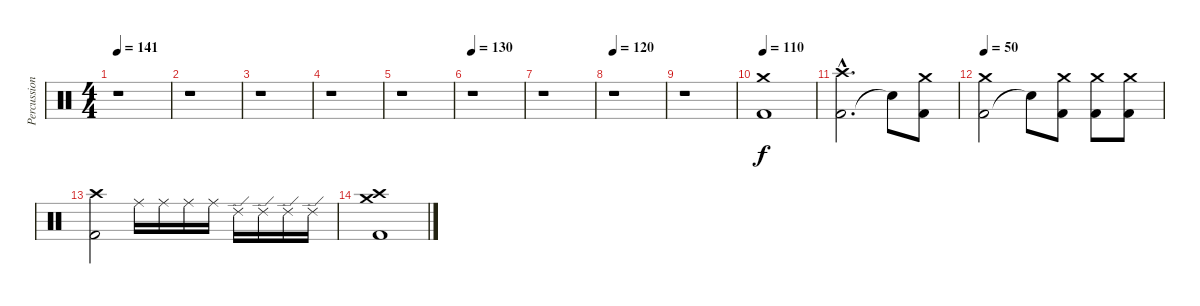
\track ("Percussion" "Percussion") {instrument percussion}
\staff {score}
\articulation defaults
\ts (4 4)
\tempo 141
\clef neutral
\ks c
r.1{dy f} |
r.1 |
r.1 |
r.1 |
r.1 |
\tempo 130
r.1 |
r.1 |
\tempo 120
r.1 |
r.1 |
\tempo 110
("Kick (hit) 2" "Crash medium (hit)").1 |
("Kick (hit) 2"{hac} "Crash high (hit)"{hac}).2{d} "Snare (hit)"{t}.8 ("Kick (hit) 2" "Crash medium (hit)").8 |
\tempo 50
("Kick (hit) 2" "Crash medium (hit)").2 "Snare (hit)"{t}.8 ("Kick (hit) 2" "Crash medium (hit)").8 ("Kick (hit) 2" "Crash medium (hit)").8 ("Kick (hit) 2" "Crash medium (hit)").8 |
("Kick (hit) 2" "Crash high (hit)").2 "Ride (middle)".16 "Ride (middle)".16 "Ride (middle)".16 "Ride (middle)".16 "Ride (edge) 2".16 "Ride (edge) 2".16 "Ride (edge) 2".16 "Ride (edge) 2".16 |
("Kick (hit) 2" "Crash high (hit)" "Crash medium (hit)").1
